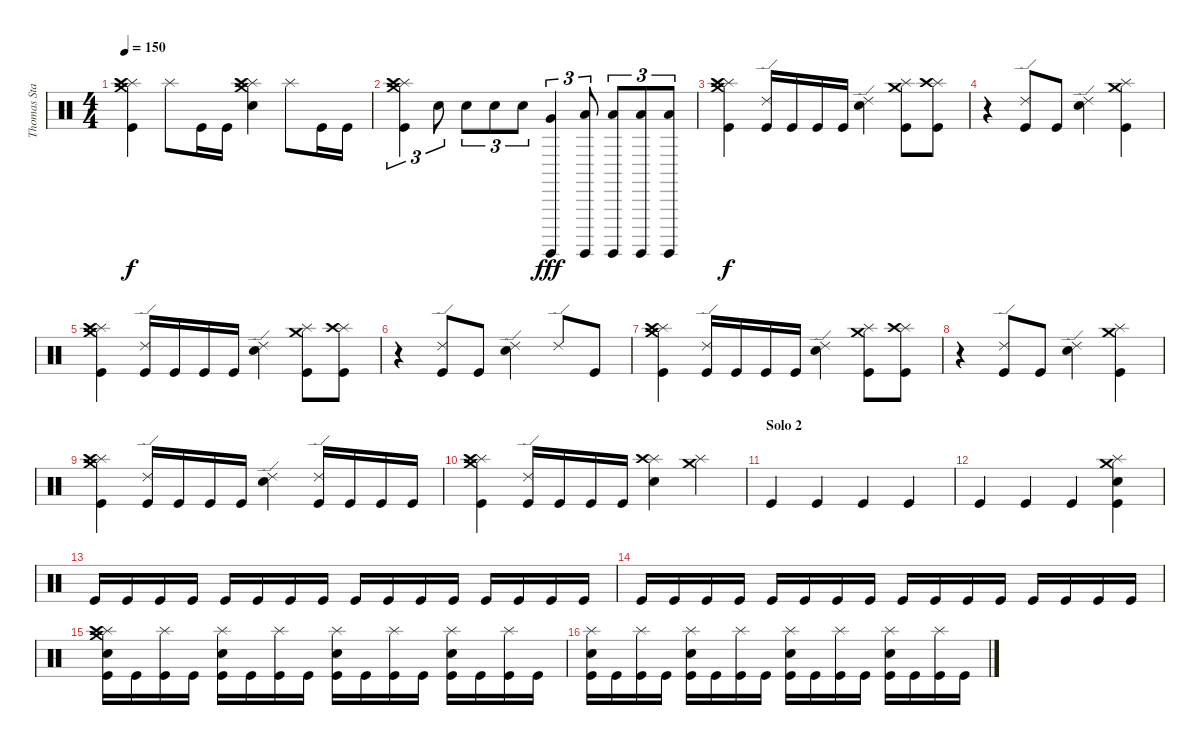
\track ("Thomas Stauch" "Thomas Sta") {instrument percussion}
\staff {score}
\articulation defaults
\ts (4 4)
\tempo 150
\clef neutral
\ks c
("Crash medium (hit)" "Splash (hit)" "Crash high (hit)" "Kick (hit)").4{dy f} "Splash (hit)".8 "Kick (hit)".16 "Kick (hit)".16 ("Crash medium (hit)" "Splash (hit)" "Crash high (hit)" "Electric Snare (hit)").4 "Splash (hit)".8 "Kick (hit)".16 "Kick (hit)".16 |
("Crash medium (hit)" "Splash (hit)" "Crash high (hit)" "Kick (hit)").4{tu (3 2)} "Electric Snare (hit)".8{tu (3 2)} "Electric Snare (hit)".8{tu (3 2)} "Electric Snare (hit)".8{tu (3 2)} "Electric Snare (hit)".8{tu (3 2)} ("Surdo (hit)" "Very Low Tom (hit)").4{tu (3 2) dy fff} ("Surdo (hit)" "Low Floor Tom (hit)").8{tu (3 2)} ("Surdo (hit)" "Low Floor Tom (hit)").8{tu (3 2)} ("Surdo (hit)" "Low Floor Tom (hit)").8{tu (3 2)} ("Surdo (hit)" "Low Floor Tom (hit)").8{tu (3 2)} |
("Crash medium (hit)" "Splash (hit)" "Crash high (hit)" "Kick (hit)").4{dy f} ("Ride (edge) 2" "Kick (hit)").16 "Kick (hit)".16 "Kick (hit)".16 "Kick (hit)".16 ("Ride (edge) 2" "Electric Snare (hit)").4 ("Crash medium (hit)" "Splash (hit)" "Kick (hit)").8 ("Splash (hit)" "Crash high (hit)" "Kick (hit)").8 |
r.4 ("Ride (edge) 2" "Kick (hit)").8 "Kick (hit)".8 ("Ride (edge) 2" "Electric Snare (hit)").4 ("Crash medium (hit)" "Splash (hit)" "Kick (hit)").4 |
("Crash medium (hit)" "Splash (hit)" "Crash high (hit)" "Kick (hit)").4 ("Ride (edge) 2" "Kick (hit)").16 "Kick (hit)".16 "Kick (hit)".16 "Kick (hit)".16 ("Ride (edge) 2" "Electric Snare (hit)").4 ("Crash medium (hit)" "Splash (hit)" "Kick (hit)").8 ("Splash (hit)" "Crash high (hit)" "Kick (hit)").8 |
r.4 ("Ride (edge) 2" "Kick (hit)").8 "Kick (hit)".8 ("Ride (edge) 2" "Electric Snare (hit)").4 "Ride (edge) 2".8 "Kick (hit)".8 |
("Crash medium (hit)" "Splash (hit)" "Crash high (hit)" "Kick (hit)").4 ("Ride (edge) 2" "Kick (hit)").16 "Kick (hit)".16 "Kick (hit)".16 "Kick (hit)".16 ("Ride (edge) 2" "Electric Snare (hit)").4 ("Crash medium (hit)" "Splash (hit)" "Kick (hit)").8 ("Splash (hit)" "Crash high (hit)" "Kick (hit)").8 |
r.4 ("Ride (edge) 2" "Kick (hit)").8 "Kick (hit)".8 ("Ride (edge) 2" "Electric Snare (hit)").4 ("Crash medium (hit)" "Splash (hit)" "Kick (hit)").4 |
("Crash medium (hit)" "Splash (hit)" "Crash high (hit)" "Kick (hit)").4 ("Ride (edge) 2" "Kick (hit)").16 "Kick (hit)".16 "Kick (hit)".16 "Kick (hit)".16 ("Ride (edge) 2" "Electric Snare (hit)").4 ("Ride (edge) 2" "Kick (hit)").16 "Kick (hit)".16 "Kick (hit)".16 "Kick (hit)".16 |
("Crash medium (hit)" "Splash (hit)" "Crash high (hit)" "Kick (hit)").4 ("Ride (edge) 2" "Kick (hit)").16 "Kick (hit)".16 "Kick (hit)".16 "Kick (hit)".16 ("Splash (hit)" "Crash high (hit)" "Electric Snare (hit)").4 ("Crash medium (hit)" "Splash (hit)").4 |
\section ("" "Solo 2")
"Kick (hit)".4 "Kick (hit)".4 "Kick (hit)".4 "Kick (hit)".4 |
"Kick (hit)".4 "Kick (hit)".4 "Kick (hit)".4 ("Crash medium (hit)" "Splash (hit)" "Electric Snare (hit)" "Kick (hit)").4 |
"Kick (hit)".16 "Kick (hit)".16 "Kick (hit)".16 "Kick (hit)".16 "Kick (hit)".16 "Kick (hit)".16 "Kick (hit)".16 "Kick (hit)".16 "Kick (hit)".16 "Kick (hit)".16 "Kick (hit)".16 "Kick (hit)".16 "Kick (hit)".16 "Kick (hit)".16 "Kick (hit)".16 "Kick (hit)".16 |
"Kick (hit)".16 "Kick (hit)".16 "Kick (hit)".16 "Kick (hit)".16 "Kick (hit)".16 "Kick (hit)".16 "Kick (hit)".16 "Kick (hit)".16 "Kick (hit)".16 "Kick (hit)".16 "Kick (hit)".16 "Kick (hit)".16 "Kick (hit)".16 "Kick (hit)".16 "Kick (hit)".16 "Kick (hit)".16 |
("Crash medium (hit)" "Splash (hit)" "Crash high (hit)" "Electric Snare (hit)" "Kick (hit)").16 "Kick (hit)".16 ("Splash (hit)" "Kick (hit)").16 "Kick (hit)".16 ("Splash (hit)" "Electric Snare (hit)" "Kick (hit)").16 "Kick (hit)".16 ("Splash (hit)" "Kick (hit)").16 "Kick (hit)".16 ("Splash (hit)" "Electric Snare (hit)" "Kick (hit)").16 "Kick (hit)".16 ("Splash (hit)" "Kick (hit)").16 "Kick (hit)".16 ("Splash (hit)" "Electric Snare (hit)" "Kick (hit)").16 "Kick (hit)".16 ("Splash (hit)" "Kick (hit)").16 "Kick (hit)".16 |
("Splash (hit)" "Electric Snare (hit)" "Kick (hit)").16 "Kick (hit)".16 ("Splash (hit)" "Kick (hit)").16 "Kick (hit)".16 ("Splash (hit)" "Electric Snare (hit)" "Kick (hit)").16 "Kick (hit)".16 ("Splash (hit)" "Kick (hit)").16 "Kick (hit)".16 ("Splash (hit)" "Electric Snare (hit)" "Kick (hit)").16 "Kick (hit)".16 ("Splash (hit)" "Kick (hit)").16 "Kick (hit)".16 ("Splash (hit)" "Electric Snare (hit)" "Kick (hit)").16 "Kick (hit)".16 ("Splash (hit)" "Kick (hit)").16 "Kick (hit)".16
